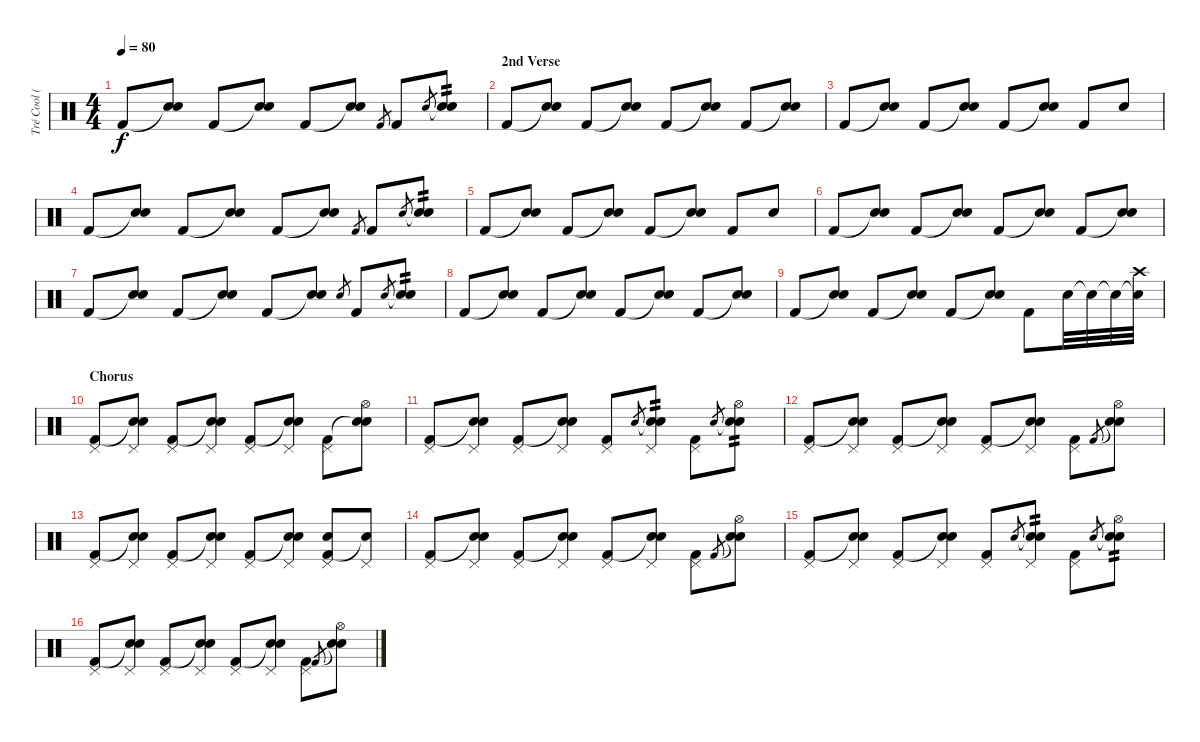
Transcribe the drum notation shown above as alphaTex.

\track ("Tré Cool (Drums)" "Tré Cool (") {instrument percussion}
\staff {score}
\articulation defaults
\ts (4 4)
\tempo 80
\clef neutral
\ks c "Kick (hit) 2".8{dy f}
("Snare (hit)"{t} "Electric Snare (hit)").8 "Kick (hit) 2".8 ("Snare (hit)"{t} "Electric Snare (hit)").8 "Kick (hit) 2".8 ("Snare (hit)"{t} "Electric Snare (hit)").8 "Kick (hit) 2".8{gr} "Kick (hit) 2".8 "Electric Snare (hit)".8{gr} ("Snare (hit)"{t} "Electric Snare (hit)").8{tp 2} |
\section ("" "2nd Verse")
"Kick (hit) 2".8 ("Snare (hit)"{t} "Electric Snare (hit)").8 "Kick (hit) 2".8 ("Snare (hit)"{t} "Electric Snare (hit)").8 "Kick (hit) 2".8 ("Snare (hit)"{t} "Electric Snare (hit)").8 "Kick (hit) 2".8 ("Snare (hit)"{t} "Electric Snare (hit)").8 |
"Kick (hit) 2".8 ("Snare (hit)"{t} "Electric Snare (hit)").8 "Kick (hit) 2".8 ("Snare (hit)"{t} "Electric Snare (hit)").8 "Kick (hit) 2".8 ("Snare (hit)"{t} "Electric Snare (hit)").8 "Kick (hit) 2".8 "Electric Snare (hit)"{tr (38 64)}.8 |
"Kick (hit) 2".8 ("Snare (hit)"{t} "Electric Snare (hit)").8 "Kick (hit) 2".8 ("Snare (hit)"{t} "Electric Snare (hit)").8 "Kick (hit) 2".8 ("Snare (hit)"{t} "Electric Snare (hit)").8 "Kick (hit) 2".8{gr} "Kick (hit) 2".8 "Electric Snare (hit)".8{gr} ("Snare (hit)"{t} "Electric Snare (hit)").8{tp 2} |
"Kick (hit) 2".8 ("Snare (hit)"{t} "Electric Snare (hit)").8 "Kick (hit) 2".8 ("Snare (hit)"{t} "Electric Snare (hit)").8 "Kick (hit) 2".8 ("Snare (hit)"{t} "Electric Snare (hit)").8 "Kick (hit) 2".8 "Electric Snare (hit)"{tr (38 64)}.8 |
"Kick (hit) 2".8 ("Snare (hit)"{t} "Electric Snare (hit)").8 "Kick (hit) 2".8 ("Snare (hit)"{t} "Electric Snare (hit)").8 "Kick (hit) 2".8 ("Snare (hit)"{t} "Electric Snare (hit)").8 "Kick (hit) 2".8 ("Snare (hit)"{t} "Electric Snare (hit)").8 |
"Kick (hit) 2".8 ("Snare (hit)"{t} "Electric Snare (hit)").8 "Kick (hit) 2".8 ("Snare (hit)"{t} "Electric Snare (hit)").8 "Kick (hit) 2".8 ("Snare (hit)"{t} "Electric Snare (hit)").8 "Electric Snare (hit)".8{gr} "Kick (hit) 2".8 "Electric Snare (hit)".8{gr} ("Snare (hit)"{t} "Electric Snare (hit)").8{tp 2} |
"Kick (hit) 2".8 ("Snare (hit)"{t} "Electric Snare (hit)").8 "Kick (hit) 2".8 ("Snare (hit)"{t} "Electric Snare (hit)").8 "Kick (hit) 2".8 ("Snare (hit)"{t} "Electric Snare (hit)").8 "Kick (hit) 2".8 ("Snare (hit)"{t} "Electric Snare (hit)").8 |
"Kick (hit) 2".8 ("Snare (hit)"{t} "Electric Snare (hit)").8 "Kick (hit) 2".8 ("Snare (hit)"{t} "Electric Snare (hit)").8 "Kick (hit) 2".8 ("Snare (hit)"{t} "Electric Snare (hit)").8 "Kick (hit) 2".8 "Electric Snare (hit)"{tr (38 64)}.32 "Snare (hit)"{t}.32 "Snare (hit)"{t}.32 ("Snare (hit)"{t} "Crash high (hit)").32 |
\section ("" "Chorus")
("Kick (hit) 2" "Pedal Hi-Hat (hit)").8 ("Snare (hit)"{t} "Electric Snare (hit)" "Pedal Hi-Hat (hit)").8 ("Kick (hit) 2" "Pedal Hi-Hat (hit)").8 ("Snare (hit)"{t} "Electric Snare (hit)" "Pedal Hi-Hat (hit)").8 ("Kick (hit) 2" "Pedal Hi-Hat (hit)").8 ("Snare (hit)"{t} "Electric Snare (hit)" "Pedal Hi-Hat (hit)").8 ("Kick (hit) 2" "Pedal Hi-Hat (hit)").8 ("Snare (hit)"{t} "Electric Snare (hit)" "Hi-Hat (open)").8 |
("Kick (hit) 2" "Pedal Hi-Hat (hit)").8 ("Snare (hit)"{t} "Electric Snare (hit)" "Pedal Hi-Hat (hit)").8 ("Kick (hit) 2" "Pedal Hi-Hat (hit)").8 ("Snare (hit)"{t} "Electric Snare (hit)" "Pedal Hi-Hat (hit)").8 ("Kick (hit) 2"{tr (36 16)} "Pedal Hi-Hat (hit)").8 "Electric Snare (hit)".8{gr} ("Snare (hit)"{t} "Electric Snare (hit)" "Pedal Hi-Hat (hit)").8{tp 2} ("Kick (hit) 2"{tr (36 16)} "Pedal Hi-Hat (hit)").8 "Electric Snare (hit)".8{gr} ("Snare (hit)"{t} "Electric Snare (hit)" "Hi-Hat (open)").8{tp 2} |
("Kick (hit) 2" "Pedal Hi-Hat (hit)").8 ("Snare (hit)"{t} "Electric Snare (hit)" "Pedal Hi-Hat (hit)").8 ("Kick (hit) 2" "Pedal Hi-Hat (hit)").8 ("Snare (hit)"{t} "Electric Snare (hit)" "Pedal Hi-Hat (hit)").8 ("Kick (hit) 2" "Pedal Hi-Hat (hit)").8 ("Snare (hit)"{t} "Electric Snare (hit)" "Pedal Hi-Hat (hit)").8 ("Kick (hit) 2" "Pedal Hi-Hat (hit)").8 "Kick (hit) 2".8{gr} ("Snare (hit)"{t} "Electric Snare (hit)" "Hi-Hat (open)").8 |
("Kick (hit) 2" "Pedal Hi-Hat (hit)").8 ("Snare (hit)"{t} "Electric Snare (hit)" "Pedal Hi-Hat (hit)").8 ("Kick (hit) 2" "Pedal Hi-Hat (hit)").8 ("Snare (hit)"{t} "Electric Snare (hit)" "Pedal Hi-Hat (hit)").8 ("Kick (hit) 2" "Pedal Hi-Hat (hit)").8 ("Snare (hit)"{t} "Electric Snare (hit)" "Pedal Hi-Hat (hit)").8 ("Kick (hit) 2" "Electric Snare (hit)"{tr (38 64)} "Pedal Hi-Hat (hit)").8 ("Electric Snare (hit)"{t} "Pedal Hi-Hat (hit)").8 |
("Kick (hit) 2" "Pedal Hi-Hat (hit)").8 ("Snare (hit)"{t} "Electric Snare (hit)" "Pedal Hi-Hat (hit)").8 ("Kick (hit) 2" "Pedal Hi-Hat (hit)").8 ("Snare (hit)"{t} "Electric Snare (hit)" "Pedal Hi-Hat (hit)").8 ("Kick (hit) 2" "Pedal Hi-Hat (hit)").8 ("Snare (hit)"{t} "Electric Snare (hit)" "Pedal Hi-Hat (hit)").8 ("Kick (hit) 2" "Pedal Hi-Hat (hit)").8 "Kick (hit) 2".8{gr} ("Snare (hit)"{t} "Electric Snare (hit)" "Hi-Hat (open)").8 |
("Kick (hit) 2" "Pedal Hi-Hat (hit)").8 ("Snare (hit)"{t} "Electric Snare (hit)" "Pedal Hi-Hat (hit)").8 ("Kick (hit) 2" "Pedal Hi-Hat (hit)").8 ("Snare (hit)"{t} "Electric Snare (hit)" "Pedal Hi-Hat (hit)").8 ("Kick (hit) 2"{tr (36 16)} "Pedal Hi-Hat (hit)").8 "Electric Snare (hit)".8{gr} ("Snare (hit)"{t} "Electric Snare (hit)" "Pedal Hi-Hat (hit)").8{tp 2} ("Kick (hit) 2"{tr (36 16)} "Pedal Hi-Hat (hit)").8 "Electric Snare (hit)".8{gr} ("Snare (hit)"{t} "Electric Snare (hit)" "Hi-Hat (open)").8{tp 2} |
("Kick (hit) 2" "Pedal Hi-Hat (hit)").8 ("Snare (hit)"{t} "Electric Snare (hit)" "Pedal Hi-Hat (hit)").8 ("Kick (hit) 2" "Pedal Hi-Hat (hit)").8 ("Snare (hit)"{t} "Electric Snare (hit)" "Pedal Hi-Hat (hit)").8 ("Kick (hit) 2" "Pedal Hi-Hat (hit)").8 ("Snare (hit)"{t} "Electric Snare (hit)" "Pedal Hi-Hat (hit)").8 ("Kick (hit) 2" "Pedal Hi-Hat (hit)").8 "Kick (hit) 2".8{gr} ("Snare (hit)"{t} "Electric Snare (hit)" "Hi-Hat (open)").8
